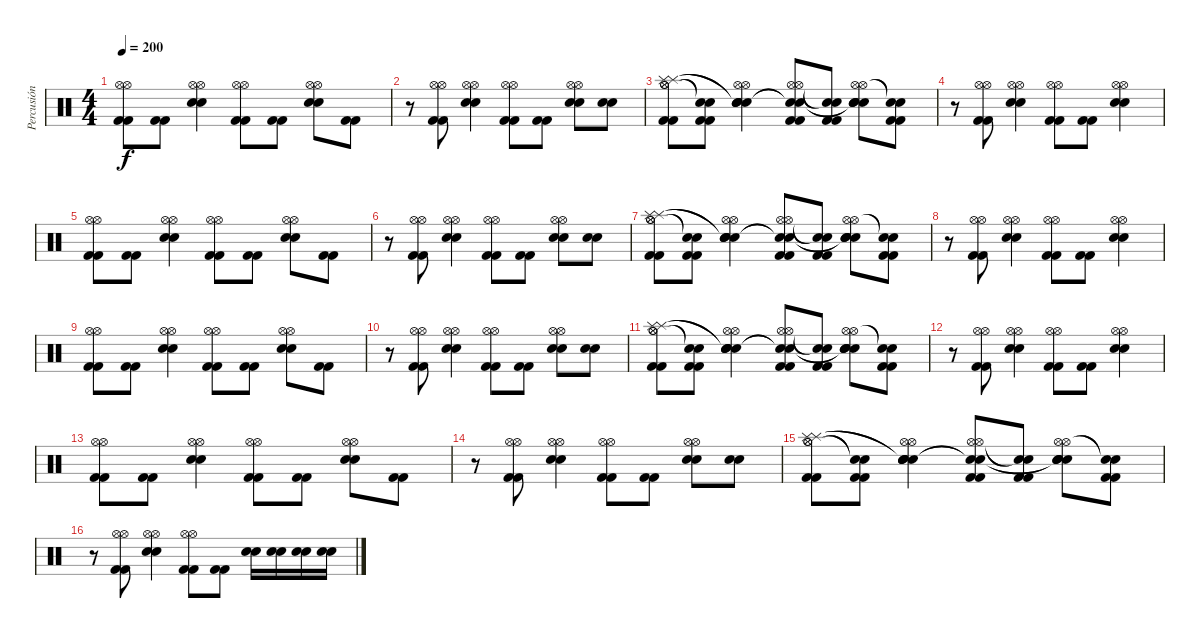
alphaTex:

\track ("Percusión" "Percusión") {instrument percussion}
\staff {score}
\articulation defaults
\ts (4 4)
\tempo 200
\clef neutral
\ks c
("Kick (hit) 2" "Kick (hit) 2" "Hi-Hat (open)" "Hi-Hat (open)").8{dy f} ("Kick (hit) 2" "Kick (hit) 2").8 ("Snare (hit) 2" "Snare (hit) 2" "Hi-Hat (open)" "Hi-Hat (open)").4 ("Kick (hit) 2" "Kick (hit) 2" "Hi-Hat (open)" "Hi-Hat (open)").8 ("Kick (hit) 2" "Kick (hit) 2").8 ("Snare (hit) 2" "Snare (hit) 2" "Hi-Hat (open)" "Hi-Hat (open)").8 ("Kick (hit) 2" "Kick (hit) 2").8 |
r.8 ("Kick (hit) 2" "Kick (hit) 2" "Hi-Hat (open)" "Hi-Hat (open)").8 ("Snare (hit) 2" "Snare (hit) 2" "Hi-Hat (open)" "Hi-Hat (open)").4 ("Kick (hit) 2" "Kick (hit) 2" "Hi-Hat (open)" "Hi-Hat (open)").8 ("Kick (hit) 2" "Kick (hit) 2").8 ("Snare (hit) 2" "Snare (hit) 2" "Hi-Hat (open)" "Hi-Hat (open)").8 ("Snare (hit) 2" "Snare (hit) 2").8 |
("Kick (hit) 2" "Kick (hit) 2" "Hi-Hat (open)" "Hi-Hat (open)" "Splash (hit)" "Splash (hit)").8 ("Kick (hit) 2" "Kick (hit) 2" "Snare (hit)"{t} "Snare (hit)"{t}).8 ("Snare (hit) 2" "Snare (hit) 2" "Hi-Hat (open)" "Hi-Hat (open)" "Snare (hit)"{t} "Snare (hit)"{t}).4 ("Kick (hit) 2" "Kick (hit) 2" "Hi-Hat (open)" "Hi-Hat (open)" "Snare (hit)"{t} "Snare (hit)"{t}).8 ("Kick (hit) 2" "Kick (hit) 2" "Snare (hit)"{t} "Snare (hit)"{t}).8 ("Snare (hit) 2" "Snare (hit) 2" "Hi-Hat (open)" "Hi-Hat (open)" "Snare (hit)"{t} "Snare (hit)"{t}).8 ("Kick (hit) 2" "Kick (hit) 2" "Snare (hit)"{t} "Snare (hit)"{t}).8 |
r.8 ("Kick (hit) 2" "Kick (hit) 2" "Hi-Hat (open)" "Hi-Hat (open)").8 ("Snare (hit) 2" "Snare (hit) 2" "Hi-Hat (open)" "Hi-Hat (open)").4 ("Kick (hit) 2" "Kick (hit) 2" "Hi-Hat (open)" "Hi-Hat (open)").8 ("Kick (hit) 2" "Kick (hit) 2").8 ("Snare (hit) 2" "Snare (hit) 2" "Hi-Hat (open)" "Hi-Hat (open)").4 |
("Kick (hit) 2" "Kick (hit) 2" "Hi-Hat (open)" "Hi-Hat (open)").8 ("Kick (hit) 2" "Kick (hit) 2").8 ("Snare (hit) 2" "Snare (hit) 2" "Hi-Hat (open)" "Hi-Hat (open)").4 ("Kick (hit) 2" "Kick (hit) 2" "Hi-Hat (open)" "Hi-Hat (open)").8 ("Kick (hit) 2" "Kick (hit) 2").8 ("Snare (hit) 2" "Snare (hit) 2" "Hi-Hat (open)" "Hi-Hat (open)").8 ("Kick (hit) 2" "Kick (hit) 2").8 |
r.8 ("Kick (hit) 2" "Kick (hit) 2" "Hi-Hat (open)" "Hi-Hat (open)").8 ("Snare (hit) 2" "Snare (hit) 2" "Hi-Hat (open)" "Hi-Hat (open)").4 ("Kick (hit) 2" "Kick (hit) 2" "Hi-Hat (open)" "Hi-Hat (open)").8 ("Kick (hit) 2" "Kick (hit) 2").8 ("Snare (hit) 2" "Snare (hit) 2" "Hi-Hat (open)" "Hi-Hat (open)").8 ("Snare (hit) 2" "Snare (hit) 2").8 |
("Kick (hit) 2" "Kick (hit) 2" "Hi-Hat (open)" "Hi-Hat (open)" "Splash (hit)" "Splash (hit)").8 ("Kick (hit) 2" "Kick (hit) 2" "Snare (hit)"{t} "Snare (hit)"{t}).8 ("Snare (hit) 2" "Snare (hit) 2" "Hi-Hat (open)" "Hi-Hat (open)" "Snare (hit)"{t} "Snare (hit)"{t}).4 ("Kick (hit) 2" "Kick (hit) 2" "Hi-Hat (open)" "Hi-Hat (open)" "Snare (hit)"{t} "Snare (hit)"{t}).8 ("Kick (hit) 2" "Kick (hit) 2" "Snare (hit)"{t} "Snare (hit)"{t}).8 ("Snare (hit) 2" "Snare (hit) 2" "Hi-Hat (open)" "Hi-Hat (open)" "Snare (hit)"{t} "Snare (hit)"{t}).8 ("Kick (hit) 2" "Kick (hit) 2" "Snare (hit)"{t} "Snare (hit)"{t}).8 |
r.8 ("Kick (hit) 2" "Kick (hit) 2" "Hi-Hat (open)" "Hi-Hat (open)").8 ("Snare (hit) 2" "Snare (hit) 2" "Hi-Hat (open)" "Hi-Hat (open)").4 ("Kick (hit) 2" "Kick (hit) 2" "Hi-Hat (open)" "Hi-Hat (open)").8 ("Kick (hit) 2" "Kick (hit) 2").8 ("Snare (hit) 2" "Snare (hit) 2" "Hi-Hat (open)" "Hi-Hat (open)").4 |
("Kick (hit) 2" "Kick (hit) 2" "Hi-Hat (open)" "Hi-Hat (open)").8 ("Kick (hit) 2" "Kick (hit) 2").8 ("Snare (hit) 2" "Snare (hit) 2" "Hi-Hat (open)" "Hi-Hat (open)").4 ("Kick (hit) 2" "Kick (hit) 2" "Hi-Hat (open)" "Hi-Hat (open)").8 ("Kick (hit) 2" "Kick (hit) 2").8 ("Snare (hit) 2" "Snare (hit) 2" "Hi-Hat (open)" "Hi-Hat (open)").8 ("Kick (hit) 2" "Kick (hit) 2").8 |
r.8 ("Kick (hit) 2" "Kick (hit) 2" "Hi-Hat (open)" "Hi-Hat (open)").8 ("Snare (hit) 2" "Snare (hit) 2" "Hi-Hat (open)" "Hi-Hat (open)").4 ("Kick (hit) 2" "Kick (hit) 2" "Hi-Hat (open)" "Hi-Hat (open)").8 ("Kick (hit) 2" "Kick (hit) 2").8 ("Snare (hit) 2" "Snare (hit) 2" "Hi-Hat (open)" "Hi-Hat (open)").8 ("Snare (hit) 2" "Snare (hit) 2").8 |
("Kick (hit) 2" "Kick (hit) 2" "Hi-Hat (open)" "Hi-Hat (open)" "Splash (hit)" "Splash (hit)").8 ("Kick (hit) 2" "Kick (hit) 2" "Snare (hit)"{t} "Snare (hit)"{t}).8 ("Snare (hit) 2" "Snare (hit) 2" "Hi-Hat (open)" "Hi-Hat (open)" "Snare (hit)"{t} "Snare (hit)"{t}).4 ("Kick (hit) 2" "Kick (hit) 2" "Hi-Hat (open)" "Hi-Hat (open)" "Snare (hit)"{t} "Snare (hit)"{t}).8 ("Kick (hit) 2" "Kick (hit) 2" "Snare (hit)"{t} "Snare (hit)"{t}).8 ("Snare (hit) 2" "Snare (hit) 2" "Hi-Hat (open)" "Hi-Hat (open)" "Snare (hit)"{t} "Snare (hit)"{t}).8 ("Kick (hit) 2" "Kick (hit) 2" "Snare (hit)"{t} "Snare (hit)"{t}).8 |
r.8 ("Kick (hit) 2" "Kick (hit) 2" "Hi-Hat (open)" "Hi-Hat (open)").8 ("Snare (hit) 2" "Snare (hit) 2" "Hi-Hat (open)" "Hi-Hat (open)").4 ("Kick (hit) 2" "Kick (hit) 2" "Hi-Hat (open)" "Hi-Hat (open)").8 ("Kick (hit) 2" "Kick (hit) 2").8 ("Snare (hit) 2" "Snare (hit) 2" "Hi-Hat (open)" "Hi-Hat (open)").4 |
("Kick (hit) 2" "Kick (hit) 2" "Hi-Hat (open)" "Hi-Hat (open)").8 ("Kick (hit) 2" "Kick (hit) 2").8 ("Snare (hit) 2" "Snare (hit) 2" "Hi-Hat (open)" "Hi-Hat (open)").4 ("Kick (hit) 2" "Kick (hit) 2" "Hi-Hat (open)" "Hi-Hat (open)").8 ("Kick (hit) 2" "Kick (hit) 2").8 ("Snare (hit) 2" "Snare (hit) 2" "Hi-Hat (open)" "Hi-Hat (open)").8 ("Kick (hit) 2" "Kick (hit) 2").8 |
r.8 ("Kick (hit) 2" "Kick (hit) 2" "Hi-Hat (open)" "Hi-Hat (open)").8 ("Snare (hit) 2" "Snare (hit) 2" "Hi-Hat (open)" "Hi-Hat (open)").4 ("Kick (hit) 2" "Kick (hit) 2" "Hi-Hat (open)" "Hi-Hat (open)").8 ("Kick (hit) 2" "Kick (hit) 2").8 ("Snare (hit) 2" "Snare (hit) 2" "Hi-Hat (open)" "Hi-Hat (open)").8 ("Snare (hit) 2" "Snare (hit) 2").8 |
("Kick (hit) 2" "Kick (hit) 2" "Hi-Hat (open)" "Hi-Hat (open)" "Splash (hit)" "Splash (hit)").8 ("Kick (hit) 2" "Kick (hit) 2" "Snare (hit)"{t} "Snare (hit)"{t}).8 ("Snare (hit) 2" "Snare (hit) 2" "Hi-Hat (open)" "Hi-Hat (open)" "Snare (hit)"{t} "Snare (hit)"{t}).4 ("Kick (hit) 2" "Kick (hit) 2" "Hi-Hat (open)" "Hi-Hat (open)" "Snare (hit)"{t} "Snare (hit)"{t}).8 ("Kick (hit) 2" "Kick (hit) 2" "Snare (hit)"{t} "Snare (hit)"{t}).8 ("Snare (hit) 2" "Snare (hit) 2" "Hi-Hat (open)" "Hi-Hat (open)" "Snare (hit)"{t} "Snare (hit)"{t}).8 ("Kick (hit) 2" "Kick (hit) 2" "Snare (hit)"{t} "Snare (hit)"{t}).8 |
r.8 ("Kick (hit) 2" "Kick (hit) 2" "Hi-Hat (open)" "Hi-Hat (open)").8 ("Snare (hit) 2" "Snare (hit) 2" "Hi-Hat (open)" "Hi-Hat (open)").4 ("Kick (hit) 2" "Kick (hit) 2" "Hi-Hat (open)" "Hi-Hat (open)").8 ("Kick (hit) 2" "Kick (hit) 2").8 ("Snare (hit) 2" "Snare (hit) 2").16 ("Snare (hit) 2" "Snare (hit) 2").16 ("Snare (hit) 2" "Snare (hit) 2").16 ("Snare (hit) 2" "Snare (hit) 2").16
